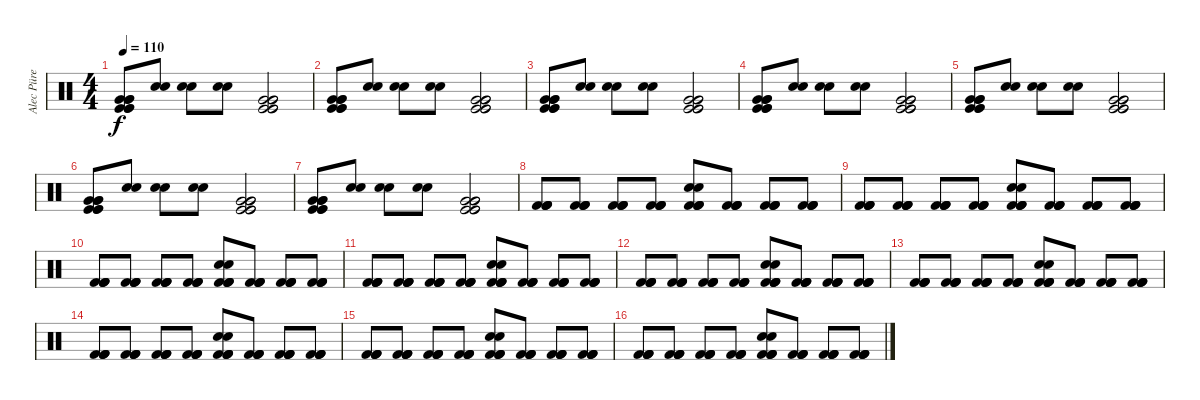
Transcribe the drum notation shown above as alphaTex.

\track ("Alec Püre" "Alec Püre") {instrument percussion}
\staff {score}
\articulation defaults
\ts (4 4)
\tempo 110
\clef neutral
\ks c
("Very Low Tom (hit)" "Very Low Tom (hit)" "Very Low Tom (hit)" "Kick (hit)" "Kick (hit)" "Kick (hit)").8{dy f} ("Electric Snare (hit)" "Electric Snare (hit)").8 ("Electric Snare (hit)" "Electric Snare (hit)").8 ("Electric Snare (hit)" "Electric Snare (hit)").8 ("Very Low Tom (hit)" "Very Low Tom (hit)" "Very Low Tom (hit)" "Kick (hit)" "Kick (hit)" "Kick (hit)").2 |
("Very Low Tom (hit)" "Very Low Tom (hit)" "Very Low Tom (hit)" "Kick (hit)" "Kick (hit)" "Kick (hit)").8 ("Electric Snare (hit)" "Electric Snare (hit)").8 ("Electric Snare (hit)" "Electric Snare (hit)").8 ("Electric Snare (hit)" "Electric Snare (hit)").8 ("Very Low Tom (hit)" "Very Low Tom (hit)" "Very Low Tom (hit)" "Kick (hit)" "Kick (hit)" "Kick (hit)").2 |
("Very Low Tom (hit)" "Very Low Tom (hit)" "Very Low Tom (hit)" "Kick (hit)" "Kick (hit)" "Kick (hit)").8 ("Electric Snare (hit)" "Electric Snare (hit)").8 ("Electric Snare (hit)" "Electric Snare (hit)").8 ("Electric Snare (hit)" "Electric Snare (hit)").8 ("Very Low Tom (hit)" "Very Low Tom (hit)" "Very Low Tom (hit)" "Kick (hit)" "Kick (hit)" "Kick (hit)").2 |
("Very Low Tom (hit)" "Very Low Tom (hit)" "Very Low Tom (hit)" "Kick (hit)" "Kick (hit)" "Kick (hit)").8 ("Electric Snare (hit)" "Electric Snare (hit)").8 ("Electric Snare (hit)" "Electric Snare (hit)").8 ("Electric Snare (hit)" "Electric Snare (hit)").8 ("Very Low Tom (hit)" "Very Low Tom (hit)" "Very Low Tom (hit)" "Kick (hit)" "Kick (hit)" "Kick (hit)").2 |
("Very Low Tom (hit)" "Very Low Tom (hit)" "Very Low Tom (hit)" "Kick (hit)" "Kick (hit)" "Kick (hit)").8 ("Electric Snare (hit)" "Electric Snare (hit)").8 ("Electric Snare (hit)" "Electric Snare (hit)").8 ("Electric Snare (hit)" "Electric Snare (hit)").8 ("Very Low Tom (hit)" "Very Low Tom (hit)" "Very Low Tom (hit)" "Kick (hit)" "Kick (hit)" "Kick (hit)").2 |
("Very Low Tom (hit)" "Very Low Tom (hit)" "Very Low Tom (hit)" "Kick (hit)" "Kick (hit)" "Kick (hit)").8 ("Electric Snare (hit)" "Electric Snare (hit)").8 ("Electric Snare (hit)" "Electric Snare (hit)").8 ("Electric Snare (hit)" "Electric Snare (hit)").8 ("Very Low Tom (hit)" "Very Low Tom (hit)" "Very Low Tom (hit)" "Kick (hit)" "Kick (hit)" "Kick (hit)").2 |
("Very Low Tom (hit)" "Very Low Tom (hit)" "Very Low Tom (hit)" "Kick (hit)" "Kick (hit)" "Kick (hit)").8 ("Electric Snare (hit)" "Electric Snare (hit)").8 ("Electric Snare (hit)" "Electric Snare (hit)").8 ("Electric Snare (hit)" "Electric Snare (hit)").8 ("Very Low Tom (hit)" "Very Low Tom (hit)" "Very Low Tom (hit)" "Kick (hit)" "Kick (hit)" "Kick (hit)").2 |
("Kick (hit) 2" "Kick (hit) 2" "Kick (hit) 2" "Kick (hit) 2").8 ("Kick (hit) 2" "Kick (hit) 2" "Kick (hit) 2" "Kick (hit) 2").8 ("Kick (hit) 2" "Kick (hit) 2" "Kick (hit) 2" "Kick (hit) 2").8 ("Kick (hit) 2" "Kick (hit) 2" "Kick (hit) 2" "Kick (hit) 2").8 ("Snare (hit) 2" "Snare (hit) 2" "Kick (hit) 2" "Kick (hit) 2" "Kick (hit) 2" "Kick (hit) 2").8 ("Kick (hit) 2" "Kick (hit) 2" "Kick (hit) 2" "Kick (hit) 2").8 ("Kick (hit) 2" "Kick (hit) 2" "Kick (hit) 2" "Kick (hit) 2").8 ("Kick (hit) 2" "Kick (hit) 2" "Kick (hit) 2" "Kick (hit) 2").8 |
("Kick (hit) 2" "Kick (hit) 2" "Kick (hit) 2" "Kick (hit) 2").8 ("Kick (hit) 2" "Kick (hit) 2" "Kick (hit) 2" "Kick (hit) 2").8 ("Kick (hit) 2" "Kick (hit) 2" "Kick (hit) 2" "Kick (hit) 2").8 ("Kick (hit) 2" "Kick (hit) 2" "Kick (hit) 2" "Kick (hit) 2").8 ("Snare (hit) 2" "Snare (hit) 2" "Kick (hit) 2" "Kick (hit) 2" "Kick (hit) 2" "Kick (hit) 2").8 ("Kick (hit) 2" "Kick (hit) 2" "Kick (hit) 2" "Kick (hit) 2").8 ("Kick (hit) 2" "Kick (hit) 2" "Kick (hit) 2" "Kick (hit) 2").8 ("Kick (hit) 2" "Kick (hit) 2" "Kick (hit) 2" "Kick (hit) 2").8 |
("Kick (hit) 2" "Kick (hit) 2" "Kick (hit) 2" "Kick (hit) 2").8 ("Kick (hit) 2" "Kick (hit) 2" "Kick (hit) 2" "Kick (hit) 2").8 ("Kick (hit) 2" "Kick (hit) 2" "Kick (hit) 2" "Kick (hit) 2").8 ("Kick (hit) 2" "Kick (hit) 2" "Kick (hit) 2" "Kick (hit) 2").8 ("Snare (hit) 2" "Snare (hit) 2" "Kick (hit) 2" "Kick (hit) 2" "Kick (hit) 2" "Kick (hit) 2").8 ("Kick (hit) 2" "Kick (hit) 2" "Kick (hit) 2" "Kick (hit) 2").8 ("Kick (hit) 2" "Kick (hit) 2" "Kick (hit) 2" "Kick (hit) 2").8 ("Kick (hit) 2" "Kick (hit) 2" "Kick (hit) 2" "Kick (hit) 2").8 |
("Kick (hit) 2" "Kick (hit) 2" "Kick (hit) 2" "Kick (hit) 2").8 ("Kick (hit) 2" "Kick (hit) 2" "Kick (hit) 2" "Kick (hit) 2").8 ("Kick (hit) 2" "Kick (hit) 2" "Kick (hit) 2" "Kick (hit) 2").8 ("Kick (hit) 2" "Kick (hit) 2" "Kick (hit) 2" "Kick (hit) 2").8 ("Snare (hit) 2" "Snare (hit) 2" "Kick (hit) 2" "Kick (hit) 2" "Kick (hit) 2" "Kick (hit) 2").8 ("Kick (hit) 2" "Kick (hit) 2" "Kick (hit) 2" "Kick (hit) 2").8 ("Kick (hit) 2" "Kick (hit) 2" "Kick (hit) 2" "Kick (hit) 2").8 ("Kick (hit) 2" "Kick (hit) 2" "Kick (hit) 2" "Kick (hit) 2").8 |
("Kick (hit) 2" "Kick (hit) 2" "Kick (hit) 2" "Kick (hit) 2").8 ("Kick (hit) 2" "Kick (hit) 2" "Kick (hit) 2" "Kick (hit) 2").8 ("Kick (hit) 2" "Kick (hit) 2" "Kick (hit) 2" "Kick (hit) 2").8 ("Kick (hit) 2" "Kick (hit) 2" "Kick (hit) 2" "Kick (hit) 2").8 ("Snare (hit) 2" "Snare (hit) 2" "Kick (hit) 2" "Kick (hit) 2" "Kick (hit) 2" "Kick (hit) 2").8 ("Kick (hit) 2" "Kick (hit) 2" "Kick (hit) 2" "Kick (hit) 2").8 ("Kick (hit) 2" "Kick (hit) 2" "Kick (hit) 2" "Kick (hit) 2").8 ("Kick (hit) 2" "Kick (hit) 2" "Kick (hit) 2" "Kick (hit) 2").8 |
("Kick (hit) 2" "Kick (hit) 2" "Kick (hit) 2" "Kick (hit) 2").8 ("Kick (hit) 2" "Kick (hit) 2" "Kick (hit) 2" "Kick (hit) 2").8 ("Kick (hit) 2" "Kick (hit) 2" "Kick (hit) 2" "Kick (hit) 2").8 ("Kick (hit) 2" "Kick (hit) 2" "Kick (hit) 2" "Kick (hit) 2").8 ("Snare (hit) 2" "Snare (hit) 2" "Kick (hit) 2" "Kick (hit) 2" "Kick (hit) 2" "Kick (hit) 2").8 ("Kick (hit) 2" "Kick (hit) 2" "Kick (hit) 2" "Kick (hit) 2").8 ("Kick (hit) 2" "Kick (hit) 2" "Kick (hit) 2" "Kick (hit) 2").8 ("Kick (hit) 2" "Kick (hit) 2" "Kick (hit) 2" "Kick (hit) 2").8 |
("Kick (hit) 2" "Kick (hit) 2" "Kick (hit) 2" "Kick (hit) 2").8 ("Kick (hit) 2" "Kick (hit) 2" "Kick (hit) 2" "Kick (hit) 2").8 ("Kick (hit) 2" "Kick (hit) 2" "Kick (hit) 2" "Kick (hit) 2").8 ("Kick (hit) 2" "Kick (hit) 2" "Kick (hit) 2" "Kick (hit) 2").8 ("Snare (hit) 2" "Snare (hit) 2" "Kick (hit) 2" "Kick (hit) 2" "Kick (hit) 2" "Kick (hit) 2").8 ("Kick (hit) 2" "Kick (hit) 2" "Kick (hit) 2" "Kick (hit) 2").8 ("Kick (hit) 2" "Kick (hit) 2" "Kick (hit) 2" "Kick (hit) 2").8 ("Kick (hit) 2" "Kick (hit) 2" "Kick (hit) 2" "Kick (hit) 2").8 |
("Kick (hit) 2" "Kick (hit) 2" "Kick (hit) 2" "Kick (hit) 2").8 ("Kick (hit) 2" "Kick (hit) 2" "Kick (hit) 2" "Kick (hit) 2").8 ("Kick (hit) 2" "Kick (hit) 2" "Kick (hit) 2" "Kick (hit) 2").8 ("Kick (hit) 2" "Kick (hit) 2" "Kick (hit) 2" "Kick (hit) 2").8 ("Snare (hit) 2" "Snare (hit) 2" "Kick (hit) 2" "Kick (hit) 2" "Kick (hit) 2" "Kick (hit) 2").8 ("Kick (hit) 2" "Kick (hit) 2" "Kick (hit) 2" "Kick (hit) 2").8 ("Kick (hit) 2" "Kick (hit) 2" "Kick (hit) 2" "Kick (hit) 2").8 ("Kick (hit) 2" "Kick (hit) 2" "Kick (hit) 2" "Kick (hit) 2").8 |
("Kick (hit) 2" "Kick (hit) 2" "Kick (hit) 2" "Kick (hit) 2").8 ("Kick (hit) 2" "Kick (hit) 2" "Kick (hit) 2" "Kick (hit) 2").8 ("Kick (hit) 2" "Kick (hit) 2" "Kick (hit) 2" "Kick (hit) 2").8 ("Kick (hit) 2" "Kick (hit) 2" "Kick (hit) 2" "Kick (hit) 2").8 ("Snare (hit) 2" "Snare (hit) 2" "Kick (hit) 2" "Kick (hit) 2" "Kick (hit) 2" "Kick (hit) 2").8 ("Kick (hit) 2" "Kick (hit) 2" "Kick (hit) 2" "Kick (hit) 2").8 ("Kick (hit) 2" "Kick (hit) 2" "Kick (hit) 2" "Kick (hit) 2").8 ("Kick (hit) 2" "Kick (hit) 2" "Kick (hit) 2" "Kick (hit) 2").8
